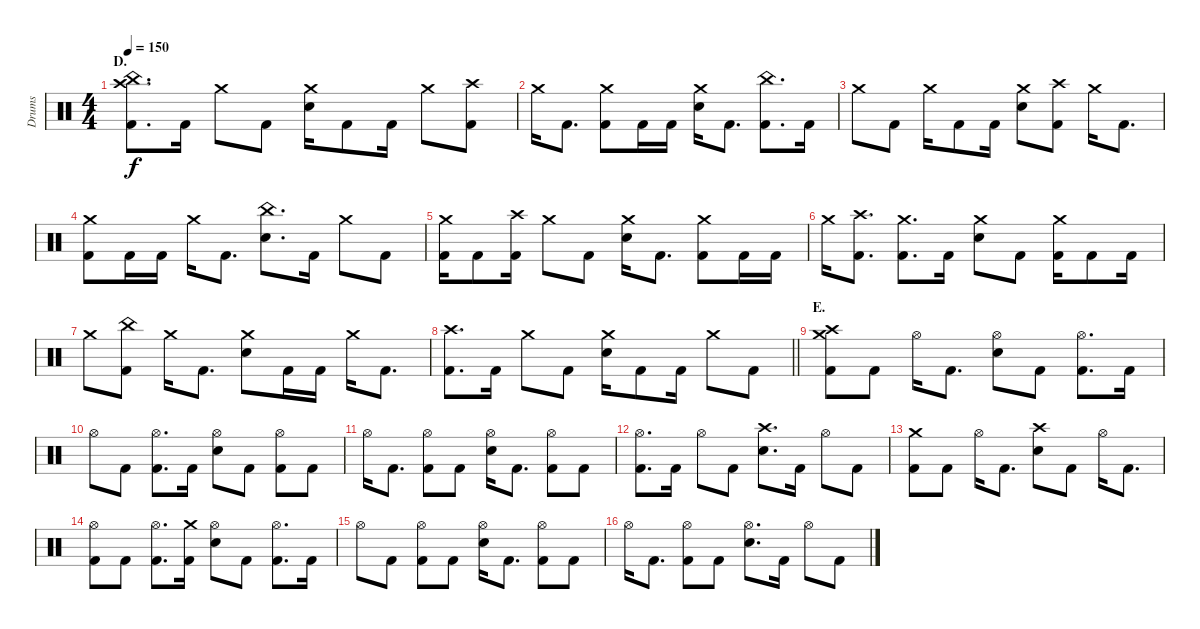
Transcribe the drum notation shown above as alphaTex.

\track ("Drums" "Drums") {instrument percussion}
\staff {score}
\articulation defaults
\ts (4 4)
\section ("" "D.")
\tempo 150
\clef neutral
\ks c
("China (hit)" "Crash high (hit)" "Kick (hit) 2").8{d dy f} "Kick (hit) 2".16 "Crash medium (hit)".8 "Kick (hit) 2".8 ("Crash medium (hit)" "Electric Snare (hit)").16 "Kick (hit) 2".8 "Kick (hit) 2".16 "Crash medium (hit)".8 ("Crash high (hit)" "Kick (hit) 2").8 |
"Crash medium (hit)".16 "Kick (hit) 2".8{d} ("Crash medium (hit)" "Kick (hit) 2").8 "Kick (hit) 2".16 "Kick (hit) 2".16 ("Crash medium (hit)" "Electric Snare (hit)").16 "Kick (hit) 2".8{d} ("China (hit)" "Kick (hit) 2").8{d} "Kick (hit) 2".16 |
"Crash medium (hit)".8 "Kick (hit) 2".8 "Crash medium (hit)".16 "Kick (hit) 2".8 "Kick (hit) 2".16 ("Crash medium (hit)" "Electric Snare (hit)").8 ("Crash high (hit)" "Kick (hit) 2").8 "Crash medium (hit)".16 "Kick (hit) 2".8{d} |
("Crash medium (hit)" "Kick (hit) 2").8 "Kick (hit) 2".16 "Kick (hit) 2".16 "Crash medium (hit)".16 "Kick (hit) 2".8{d} ("China (hit)" "Electric Snare (hit)").8{d} "Kick (hit) 2".16 "Crash medium (hit)".8 "Kick (hit) 2".8 |
("Crash medium (hit)" "Kick (hit) 2").16 "Kick (hit) 2".8 ("Crash high (hit)" "Kick (hit) 2").16 "Crash medium (hit)".8 "Kick (hit) 2".8 ("Crash medium (hit)" "Electric Snare (hit)").16 "Kick (hit) 2".8{d} ("Crash medium (hit)" "Kick (hit) 2").8 "Kick (hit) 2".16 "Kick (hit) 2".16 |
"Crash medium (hit)".16 ("Crash high (hit)" "Kick (hit) 2").8{d} ("Crash medium (hit)" "Kick (hit) 2").8{d} "Kick (hit) 2".16 ("Crash medium (hit)" "Electric Snare (hit)").8 "Kick (hit) 2".8 ("Crash medium (hit)" "Kick (hit) 2").16 "Kick (hit) 2".8 "Kick (hit) 2".16 |
"Crash medium (hit)".8 ("China (hit)" "Kick (hit) 2").8 "Crash medium (hit)".16 "Kick (hit) 2".8{d} ("Crash medium (hit)" "Electric Snare (hit)").8 "Kick (hit) 2".16 "Kick (hit) 2".16 "Crash medium (hit)".16 "Kick (hit) 2".8{d} |
\barLineRight lightlight
("Crash high (hit)" "Kick (hit) 2").8{d} "Kick (hit) 2".16 "Crash medium (hit)".8 "Kick (hit) 2".8 ("Crash medium (hit)" "Electric Snare (hit)").16 "Kick (hit) 2".8 "Kick (hit) 2".16 "Crash medium (hit)".8 "Kick (hit) 2".8 |
\section ("" "E.")
("Crash medium (hit)" "Crash high (hit)" "Kick (hit) 2").8 "Kick (hit) 2".8 "Hi-Hat (open)".16 "Kick (hit) 2".8{d} ("Hi-Hat (open)" "Electric Snare (hit)").8 "Kick (hit) 2".8 ("Hi-Hat (open)" "Kick (hit) 2").8{d} "Kick (hit) 2".16 |
"Hi-Hat (open)".8 "Kick (hit) 2".8 ("Hi-Hat (open)" "Kick (hit) 2").8{d} "Kick (hit) 2".16 ("Hi-Hat (open)" "Electric Snare (hit)").8 "Kick (hit) 2".8 ("Hi-Hat (open)" "Kick (hit) 2").8 "Kick (hit) 2".8 |
"Hi-Hat (open)".16 "Kick (hit) 2".8{d} ("Hi-Hat (open)" "Kick (hit) 2").8 "Kick (hit) 2".8 ("Hi-Hat (open)" "Electric Snare (hit)").16 "Kick (hit) 2".8{d} ("Hi-Hat (open)" "Kick (hit) 2").8 "Kick (hit) 2".8 |
("Hi-Hat (open)" "Kick (hit) 2").8{d} "Kick (hit) 2".16 "Hi-Hat (open)".8 "Kick (hit) 2".8 ("Crash high (hit)" "Electric Snare (hit)").8{d} "Kick (hit) 2".16 "Hi-Hat (open)".8 "Kick (hit) 2".8 |
("Crash medium (hit)" "Kick (hit) 2").8 "Kick (hit) 2".8 "Hi-Hat (open)".16 "Kick (hit) 2".8{d} ("Crash high (hit)" "Electric Snare (hit)").8 "Kick (hit) 2".8 "Hi-Hat (open)".16 "Kick (hit) 2".8{d} |
("Hi-Hat (open)" "Kick (hit) 2").8 "Kick (hit) 2".8 ("Hi-Hat (open)" "Kick (hit) 2").8{d} ("Crash medium (hit)" "Kick (hit) 2").16 ("Hi-Hat (open)" "Electric Snare (hit)").8 "Kick (hit) 2".8 ("Hi-Hat (open)" "Kick (hit) 2").8{d} "Kick (hit) 2".16 |
"Hi-Hat (open)".8 "Kick (hit) 2".8 ("Hi-Hat (open)" "Kick (hit) 2").8 "Kick (hit) 2".8 ("Hi-Hat (open)" "Electric Snare (hit)").16 "Kick (hit) 2".8{d} ("Hi-Hat (open)" "Kick (hit) 2").8 "Kick (hit) 2".8 |
"Hi-Hat (open)".16 "Kick (hit) 2".8{d} ("Hi-Hat (open)" "Kick (hit) 2").8 "Kick (hit) 2".8 ("Hi-Hat (open)" "Electric Snare (hit)").8{d} "Kick (hit) 2".16 "Hi-Hat (open)".8 "Kick (hit) 2".8
